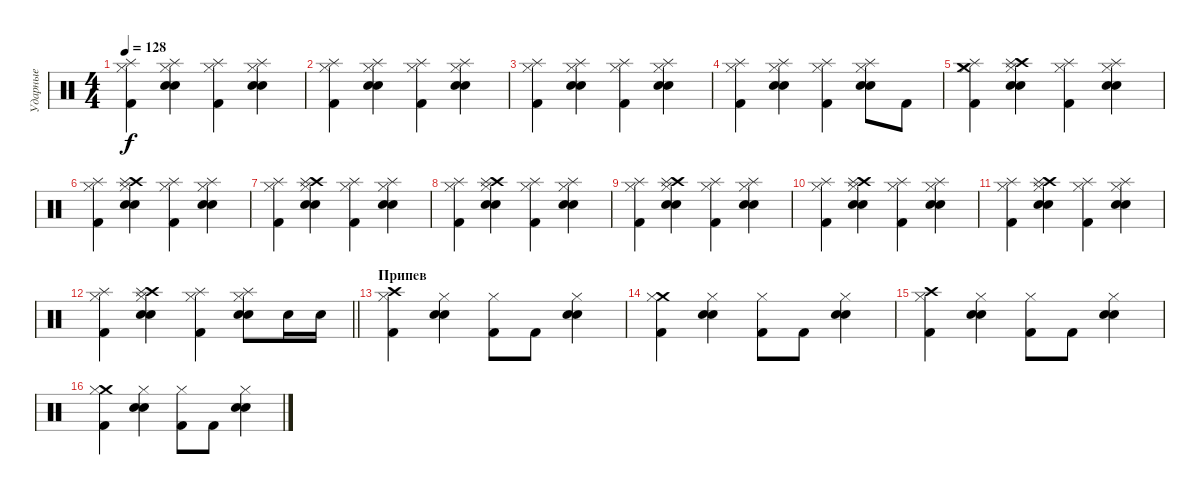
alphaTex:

\track ("Ударные" "Ударные") {instrument percussion}
\staff {score}
\articulation defaults
\ts (4 4)
\tempo 128
\clef neutral
\ks c
("Splash (hit)" "Hi-Hat (closed)" "Kick (hit) 2").4{dy f} ("Splash (hit)" "Electric Snare (hit)" "Snare (hit) 2" "Hi-Hat (closed)").4 ("Splash (hit)" "Hi-Hat (closed)" "Kick (hit) 2").4 ("Splash (hit)" "Electric Snare (hit)" "Snare (hit) 2" "Hi-Hat (closed)").4 |
("Splash (hit)" "Hi-Hat (closed)" "Kick (hit) 2").4 ("Splash (hit)" "Electric Snare (hit)" "Snare (hit) 2" "Hi-Hat (closed)").4 ("Splash (hit)" "Hi-Hat (closed)" "Kick (hit) 2").4 ("Splash (hit)" "Electric Snare (hit)" "Snare (hit) 2" "Hi-Hat (closed)").4 |
("Splash (hit)" "Hi-Hat (closed)" "Kick (hit) 2").4 ("Splash (hit)" "Electric Snare (hit)" "Snare (hit) 2" "Hi-Hat (closed)").4 ("Splash (hit)" "Hi-Hat (closed)" "Kick (hit) 2").4 ("Splash (hit)" "Electric Snare (hit)" "Snare (hit) 2" "Hi-Hat (closed)").4 |
("Splash (hit)" "Hi-Hat (closed)" "Kick (hit) 2").4 ("Splash (hit)" "Electric Snare (hit)" "Snare (hit) 2" "Hi-Hat (closed)").4 ("Splash (hit)" "Hi-Hat (closed)" "Kick (hit) 2").4 ("Splash (hit)" "Electric Snare (hit)" "Snare (hit) 2" "Hi-Hat (closed)").8 "Kick (hit) 2".8 |
("Crash medium (hit)" "Splash (hit)" "Hi-Hat (closed)" "Kick (hit) 2").4 ("Crash high (hit)" "Splash (hit)" "Electric Snare (hit)" "Snare (hit) 2" "Hi-Hat (closed)").4 ("Splash (hit)" "Hi-Hat (closed)" "Kick (hit) 2").4 ("Splash (hit)" "Electric Snare (hit)" "Snare (hit) 2" "Hi-Hat (closed)").4 |
("Splash (hit)" "Hi-Hat (closed)" "Kick (hit) 2").4 ("Crash high (hit)" "Splash (hit)" "Electric Snare (hit)" "Snare (hit) 2" "Hi-Hat (closed)").4 ("Splash (hit)" "Hi-Hat (closed)" "Kick (hit) 2").4 ("Splash (hit)" "Electric Snare (hit)" "Snare (hit) 2" "Hi-Hat (closed)").4 |
("Splash (hit)" "Hi-Hat (closed)" "Kick (hit) 2").4 ("Crash high (hit)" "Splash (hit)" "Electric Snare (hit)" "Snare (hit) 2" "Hi-Hat (closed)").4 ("Splash (hit)" "Hi-Hat (closed)" "Kick (hit) 2").4 ("Splash (hit)" "Electric Snare (hit)" "Snare (hit) 2" "Hi-Hat (closed)").4 |
("Splash (hit)" "Hi-Hat (closed)" "Kick (hit) 2").4 ("Crash high (hit)" "Splash (hit)" "Electric Snare (hit)" "Snare (hit) 2" "Hi-Hat (closed)").4 ("Splash (hit)" "Hi-Hat (closed)" "Kick (hit) 2").4 ("Splash (hit)" "Electric Snare (hit)" "Snare (hit) 2" "Hi-Hat (closed)").4 |
("Splash (hit)" "Hi-Hat (closed)" "Kick (hit) 2").4 ("Crash high (hit)" "Splash (hit)" "Electric Snare (hit)" "Snare (hit) 2" "Hi-Hat (closed)").4 ("Splash (hit)" "Hi-Hat (closed)" "Kick (hit) 2").4 ("Splash (hit)" "Electric Snare (hit)" "Snare (hit) 2" "Hi-Hat (closed)").4 |
("Splash (hit)" "Hi-Hat (closed)" "Kick (hit) 2").4 ("Crash high (hit)" "Splash (hit)" "Electric Snare (hit)" "Snare (hit) 2" "Hi-Hat (closed)").4 ("Splash (hit)" "Hi-Hat (closed)" "Kick (hit) 2").4 ("Splash (hit)" "Electric Snare (hit)" "Snare (hit) 2" "Hi-Hat (closed)").4 |
("Splash (hit)" "Hi-Hat (closed)" "Kick (hit) 2").4 ("Crash high (hit)" "Splash (hit)" "Electric Snare (hit)" "Snare (hit) 2" "Hi-Hat (closed)").4 ("Splash (hit)" "Hi-Hat (closed)" "Kick (hit) 2").4 ("Splash (hit)" "Electric Snare (hit)" "Snare (hit) 2" "Hi-Hat (closed)").4 |
\barLineRight lightlight
("Splash (hit)" "Hi-Hat (closed)" "Kick (hit) 2").4 ("Crash high (hit)" "Splash (hit)" "Electric Snare (hit)" "Snare (hit) 2" "Hi-Hat (closed)").4 ("Splash (hit)" "Hi-Hat (closed)" "Kick (hit) 2").4 ("Splash (hit)" "Electric Snare (hit)" "Snare (hit) 2" "Hi-Hat (closed)").8 "Electric Snare (hit)".16 "Electric Snare (hit)".16 |
\section ("" "Припев")
("Crash high (hit)" "Hi-Hat (closed)" "Kick (hit) 2").4 ("Electric Snare (hit)" "Snare (hit) 2" "Hi-Hat (closed)").4 ("Hi-Hat (closed)" "Kick (hit) 2").8 "Kick (hit) 2".8 ("Electric Snare (hit)" "Snare (hit) 2" "Hi-Hat (closed)").4 |
("Crash medium (hit)" "Hi-Hat (closed)" "Kick (hit) 2").4 ("Electric Snare (hit)" "Snare (hit) 2" "Hi-Hat (closed)").4 ("Hi-Hat (closed)" "Kick (hit) 2").8 "Kick (hit) 2".8 ("Electric Snare (hit)" "Snare (hit) 2" "Hi-Hat (closed)").4 |
("Crash high (hit)" "Hi-Hat (closed)" "Kick (hit) 2").4 ("Electric Snare (hit)" "Snare (hit) 2" "Hi-Hat (closed)").4 ("Hi-Hat (closed)" "Kick (hit) 2").8 "Kick (hit) 2".8 ("Electric Snare (hit)" "Snare (hit) 2" "Hi-Hat (closed)").4 |
("Crash medium (hit)" "Hi-Hat (closed)" "Kick (hit) 2").4 ("Electric Snare (hit)" "Snare (hit) 2" "Hi-Hat (closed)").4 ("Hi-Hat (closed)" "Kick (hit) 2").8 "Kick (hit) 2".8 ("Electric Snare (hit)" "Snare (hit) 2" "Hi-Hat (closed)").4
